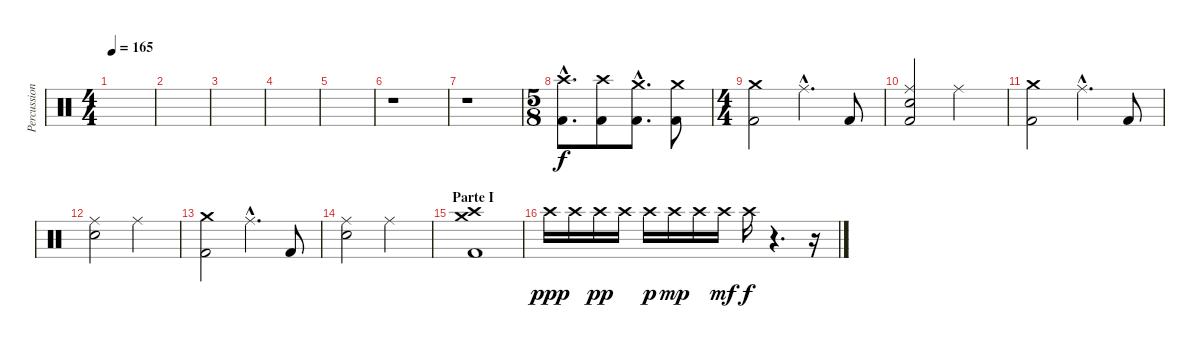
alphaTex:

\track ("Percussion" "Percussion") {instrument percussion}
\staff {score}
\articulation defaults
\ts (4 4)
\tempo 165
\clef neutral
\ks c
|
|
|
|
|
r.1 |
r.1 |
\ts (5 8)
("Crash high (hit)"{hac} "Kick (hit) 2"{hac}).8{d} ("Crash high (hit)" "Kick (hit) 2").8 ("Crash medium (hit)"{hac} "Kick (hit) 2"{hac}).8{d} ("Crash medium (hit)" "Kick (hit) 2").8 |
\ts (4 4)
("Crash medium (hit)" "Kick (hit) 2").2 "Ride (middle)"{hac}.4{d} "Kick (hit) 2".8 |
("Ride (middle)" "Snare (hit) 2" "Kick (hit) 2").2 "Ride (middle)".2 |
("Crash medium (hit)" "Kick (hit) 2").2 "Ride (middle)"{hac}.4{d} "Kick (hit) 2".8 |
("Ride (middle)" "Snare (hit) 2").2 "Ride (middle)".2 |
("Crash medium (hit)" "Kick (hit) 2").2 "Ride (middle)"{hac}.4{d} "Kick (hit) 2".8 |
("Ride (middle)" "Snare (hit) 2").2 "Ride (middle)".2 |
\section ("" "Parte I")
("Crash medium (hit)" "Crash high (hit)" "Kick (hit) 2").1 |
"Crash high (hit)".16{dy ppp} "Crash high (hit)".16 "Crash high (hit)".16{dy pp} "Crash high (hit)".16 "Crash high (hit)".16{dy p} "Crash high (hit)".16{dy mp} "Crash high (hit)".16 "Crash high (hit)".16{dy mf} "Crash high (hit)".16{dy f} r.4{d} r.16
